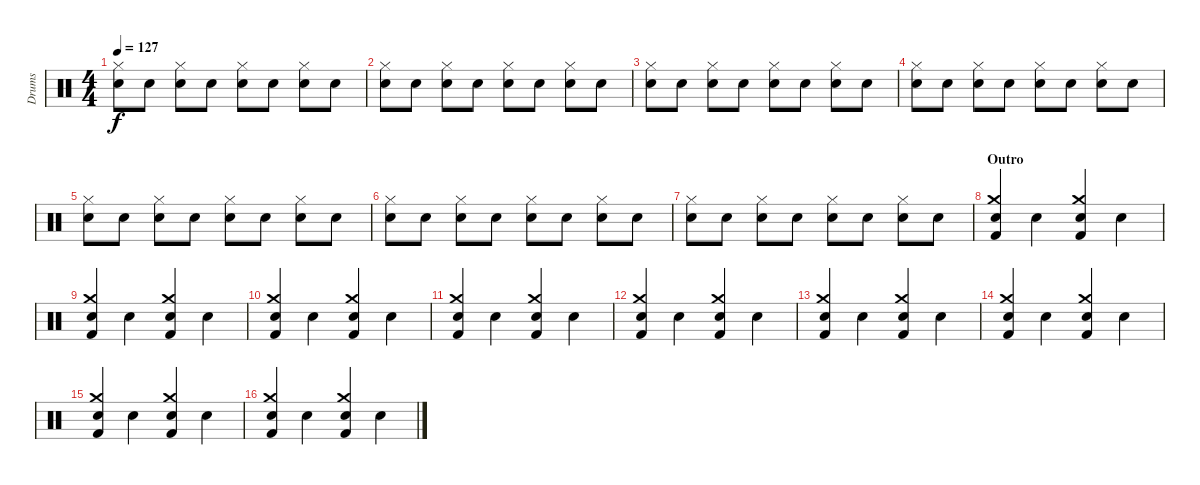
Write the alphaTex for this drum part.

\track ("Drums" "Drums") {instrument percussion}
\staff {score}
\articulation defaults
\ts (4 4)
\tempo 127
\clef neutral
\ks c
("Hi-Hat (closed)" "Snare (hit) 2").8{dy f} "Snare (hit) 2".8 ("Hi-Hat (closed)" "Snare (hit) 2").8 "Snare (hit) 2".8 ("Hi-Hat (closed)" "Snare (hit) 2").8 "Snare (hit) 2".8 ("Hi-Hat (closed)" "Snare (hit) 2").8 "Snare (hit) 2".8 |
("Hi-Hat (closed)" "Snare (hit) 2").8 "Snare (hit) 2".8 ("Hi-Hat (closed)" "Snare (hit) 2").8 "Snare (hit) 2".8 ("Hi-Hat (closed)" "Snare (hit) 2").8 "Snare (hit) 2".8 ("Hi-Hat (closed)" "Snare (hit) 2").8 "Snare (hit) 2".8 |
("Hi-Hat (closed)" "Snare (hit) 2").8 "Snare (hit) 2".8 ("Hi-Hat (closed)" "Snare (hit) 2").8 "Snare (hit) 2".8 ("Hi-Hat (closed)" "Snare (hit) 2").8 "Snare (hit) 2".8 ("Hi-Hat (closed)" "Snare (hit) 2").8 "Snare (hit) 2".8 |
("Hi-Hat (closed)" "Snare (hit) 2").8 "Snare (hit) 2".8 ("Hi-Hat (closed)" "Snare (hit) 2").8 "Snare (hit) 2".8 ("Hi-Hat (closed)" "Snare (hit) 2").8 "Snare (hit) 2".8 ("Hi-Hat (closed)" "Snare (hit) 2").8 "Snare (hit) 2".8 |
("Hi-Hat (closed)" "Snare (hit) 2").8 "Snare (hit) 2".8 ("Hi-Hat (closed)" "Snare (hit) 2").8 "Snare (hit) 2".8 ("Hi-Hat (closed)" "Snare (hit) 2").8 "Snare (hit) 2".8 ("Hi-Hat (closed)" "Snare (hit) 2").8 "Snare (hit) 2".8 |
("Hi-Hat (closed)" "Snare (hit) 2").8 "Snare (hit) 2".8 ("Hi-Hat (closed)" "Snare (hit) 2").8 "Snare (hit) 2".8 ("Hi-Hat (closed)" "Snare (hit) 2").8 "Snare (hit) 2".8 ("Hi-Hat (closed)" "Snare (hit) 2").8 "Snare (hit) 2".8 |
("Hi-Hat (closed)" "Snare (hit) 2").8 "Snare (hit) 2".8 ("Hi-Hat (closed)" "Snare (hit) 2").8 "Snare (hit) 2".8 ("Hi-Hat (closed)" "Snare (hit) 2").8 "Snare (hit) 2".8 ("Hi-Hat (closed)" "Snare (hit) 2").8 "Snare (hit) 2".8 |
\section ("" "Outro")
("Crash medium (hit)" "Kick (hit) 2" "Snare (hit) 2").4 "Snare (hit) 2".4 ("Crash medium (hit)" "Kick (hit) 2" "Snare (hit) 2").4 "Snare (hit) 2".4 |
("Crash medium (hit)" "Kick (hit) 2" "Snare (hit) 2").4 "Snare (hit) 2".4 ("Crash medium (hit)" "Kick (hit) 2" "Snare (hit) 2").4 "Snare (hit) 2".4 |
("Crash medium (hit)" "Kick (hit) 2" "Snare (hit) 2").4 "Snare (hit) 2".4 ("Crash medium (hit)" "Kick (hit) 2" "Snare (hit) 2").4 "Snare (hit) 2".4 |
("Crash medium (hit)" "Kick (hit) 2" "Snare (hit) 2").4 "Snare (hit) 2".4 ("Crash medium (hit)" "Kick (hit) 2" "Snare (hit) 2").4 "Snare (hit) 2".4 |
("Crash medium (hit)" "Kick (hit) 2" "Snare (hit) 2").4 "Snare (hit) 2".4 ("Crash medium (hit)" "Kick (hit) 2" "Snare (hit) 2").4 "Snare (hit) 2".4 |
("Crash medium (hit)" "Kick (hit) 2" "Snare (hit) 2").4 "Snare (hit) 2".4 ("Crash medium (hit)" "Kick (hit) 2" "Snare (hit) 2").4 "Snare (hit) 2".4 |
("Crash medium (hit)" "Kick (hit) 2" "Snare (hit) 2").4 "Snare (hit) 2".4 ("Crash medium (hit)" "Kick (hit) 2" "Snare (hit) 2").4 "Snare (hit) 2".4 |
("Crash medium (hit)" "Kick (hit) 2" "Snare (hit) 2").4 "Snare (hit) 2".4 ("Crash medium (hit)" "Kick (hit) 2" "Snare (hit) 2").4 "Snare (hit) 2".4 |
("Crash medium (hit)" "Kick (hit) 2" "Snare (hit) 2").4 "Snare (hit) 2".4 ("Crash medium (hit)" "Kick (hit) 2" "Snare (hit) 2").4 "Snare (hit) 2".4
